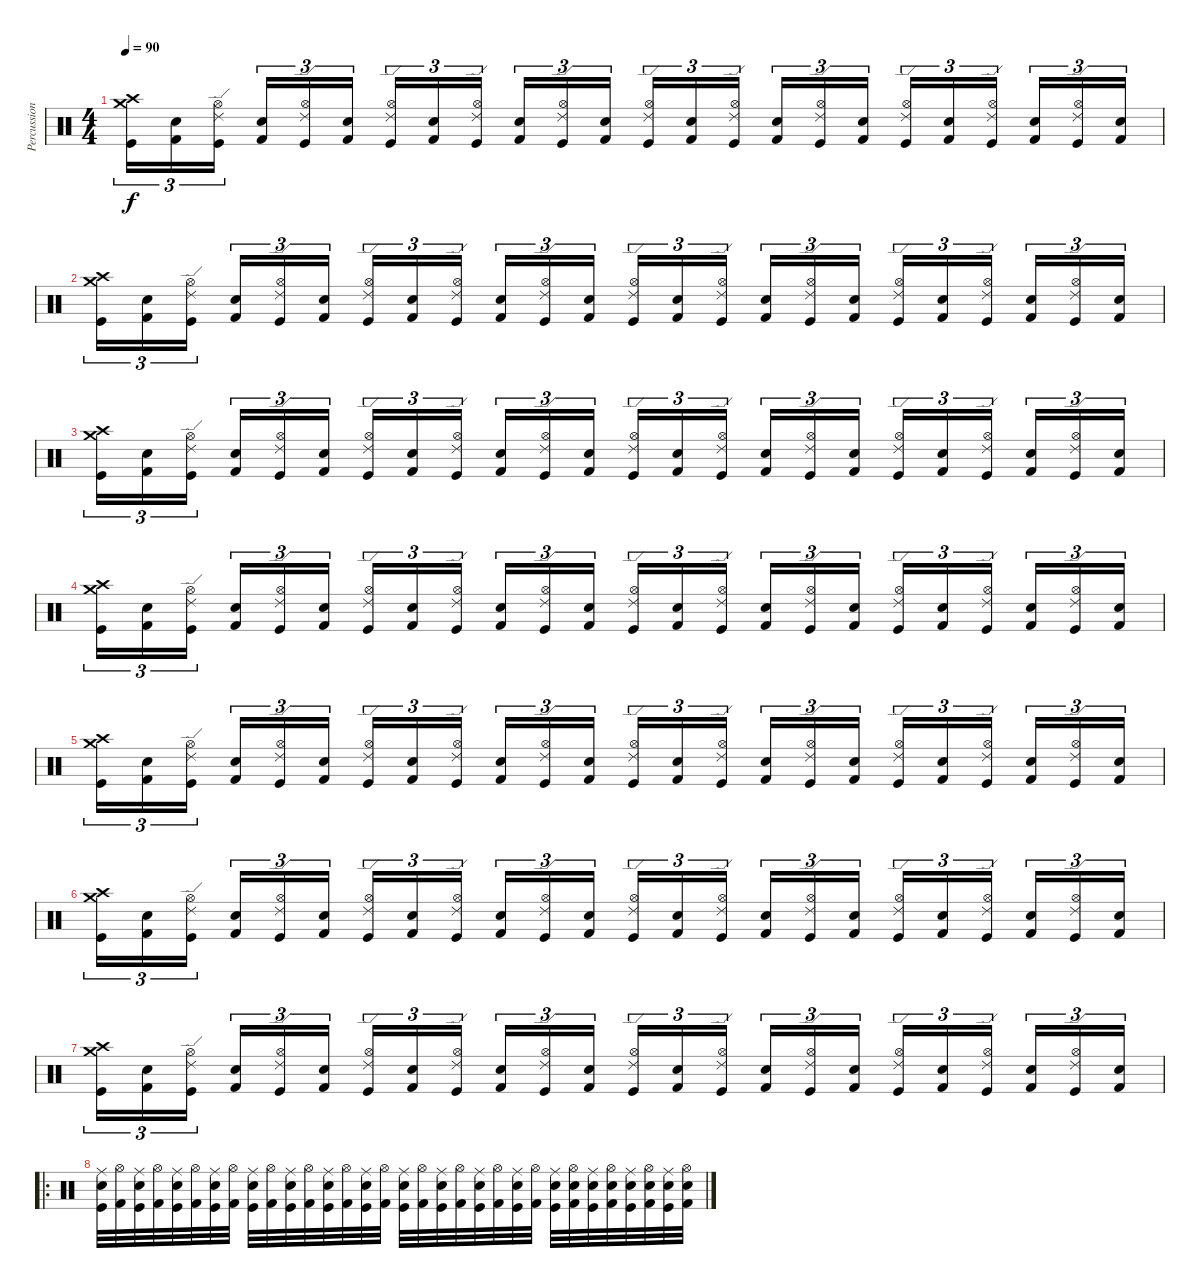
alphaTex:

\track ("Percussion" "Percussion") {instrument percussion}
\staff {score}
\articulation defaults
\ts (4 4)
\tempo 90
\clef neutral
\ks c
("Crash high (hit)" "Crash medium (hit)" "Kick (hit)").16{tu (3 2) dy f} ("Snare (hit) 2" "Kick (hit) 2").16{tu (3 2)} ("Hi-Hat (open)" "Ride (edge) 2" "Kick (hit)").16{tu (3 2)} ("Snare (hit) 2" "Kick (hit) 2").16{tu (3 2)} ("Hi-Hat (open)" "Ride (edge) 2" "Kick (hit)").16{tu (3 2)} ("Snare (hit) 2" "Kick (hit) 2").16{tu (3 2)} ("Hi-Hat (open)" "Ride (edge) 2" "Kick (hit)").16{tu (3 2)} ("Snare (hit) 2" "Kick (hit) 2").16{tu (3 2)} ("Hi-Hat (open)" "Ride (edge) 2" "Kick (hit)").16{tu (3 2)} ("Snare (hit) 2" "Kick (hit) 2").16{tu (3 2)} ("Hi-Hat (open)" "Ride (edge) 2" "Kick (hit)").16{tu (3 2)} ("Snare (hit) 2" "Kick (hit) 2").16{tu (3 2)} ("Hi-Hat (open)" "Ride (edge) 2" "Kick (hit)").16{tu (3 2)} ("Snare (hit) 2" "Kick (hit) 2").16{tu (3 2)} ("Hi-Hat (open)" "Ride (edge) 2" "Kick (hit)").16{tu (3 2)} ("Snare (hit) 2" "Kick (hit) 2").16{tu (3 2)} ("Hi-Hat (open)" "Ride (edge) 2" "Kick (hit)").16{tu (3 2)} ("Snare (hit) 2" "Kick (hit) 2").16{tu (3 2)} ("Hi-Hat (open)" "Ride (edge) 2" "Kick (hit)").16{tu (3 2)} ("Snare (hit) 2" "Kick (hit) 2").16{tu (3 2)} ("Hi-Hat (open)" "Ride (edge) 2" "Kick (hit)").16{tu (3 2)} ("Snare (hit) 2" "Kick (hit) 2").16{tu (3 2)} ("Hi-Hat (open)" "Ride (edge) 2" "Kick (hit)").16{tu (3 2)} ("Snare (hit) 2" "Kick (hit) 2").16{tu (3 2)} |
("Crash high (hit)" "Crash medium (hit)" "Kick (hit)").16{tu (3 2)} ("Snare (hit) 2" "Kick (hit) 2").16{tu (3 2)} ("Hi-Hat (open)" "Ride (edge) 2" "Kick (hit)").16{tu (3 2)} ("Snare (hit) 2" "Kick (hit) 2").16{tu (3 2)} ("Hi-Hat (open)" "Ride (edge) 2" "Kick (hit)").16{tu (3 2)} ("Snare (hit) 2" "Kick (hit) 2").16{tu (3 2)} ("Hi-Hat (open)" "Ride (edge) 2" "Kick (hit)").16{tu (3 2)} ("Snare (hit) 2" "Kick (hit) 2").16{tu (3 2)} ("Hi-Hat (open)" "Ride (edge) 2" "Kick (hit)").16{tu (3 2)} ("Snare (hit) 2" "Kick (hit) 2").16{tu (3 2)} ("Hi-Hat (open)" "Ride (edge) 2" "Kick (hit)").16{tu (3 2)} ("Snare (hit) 2" "Kick (hit) 2").16{tu (3 2)} ("Hi-Hat (open)" "Ride (edge) 2" "Kick (hit)").16{tu (3 2)} ("Snare (hit) 2" "Kick (hit) 2").16{tu (3 2)} ("Hi-Hat (open)" "Ride (edge) 2" "Kick (hit)").16{tu (3 2)} ("Snare (hit) 2" "Kick (hit) 2").16{tu (3 2)} ("Hi-Hat (open)" "Ride (edge) 2" "Kick (hit)").16{tu (3 2)} ("Snare (hit) 2" "Kick (hit) 2").16{tu (3 2)} ("Hi-Hat (open)" "Ride (edge) 2" "Kick (hit)").16{tu (3 2)} ("Snare (hit) 2" "Kick (hit) 2").16{tu (3 2)} ("Hi-Hat (open)" "Ride (edge) 2" "Kick (hit)").16{tu (3 2)} ("Snare (hit) 2" "Kick (hit) 2").16{tu (3 2)} ("Hi-Hat (open)" "Ride (edge) 2" "Kick (hit)").16{tu (3 2)} ("Snare (hit) 2" "Kick (hit) 2").16{tu (3 2)} |
("Crash high (hit)" "Crash medium (hit)" "Kick (hit)").16{tu (3 2)} ("Snare (hit) 2" "Kick (hit) 2").16{tu (3 2)} ("Hi-Hat (open)" "Ride (edge) 2" "Kick (hit)").16{tu (3 2)} ("Snare (hit) 2" "Kick (hit) 2").16{tu (3 2)} ("Hi-Hat (open)" "Ride (edge) 2" "Kick (hit)").16{tu (3 2)} ("Snare (hit) 2" "Kick (hit) 2").16{tu (3 2)} ("Hi-Hat (open)" "Ride (edge) 2" "Kick (hit)").16{tu (3 2)} ("Snare (hit) 2" "Kick (hit) 2").16{tu (3 2)} ("Hi-Hat (open)" "Ride (edge) 2" "Kick (hit)").16{tu (3 2)} ("Snare (hit) 2" "Kick (hit) 2").16{tu (3 2)} ("Hi-Hat (open)" "Ride (edge) 2" "Kick (hit)").16{tu (3 2)} ("Snare (hit) 2" "Kick (hit) 2").16{tu (3 2)} ("Hi-Hat (open)" "Ride (edge) 2" "Kick (hit)").16{tu (3 2)} ("Snare (hit) 2" "Kick (hit) 2").16{tu (3 2)} ("Hi-Hat (open)" "Ride (edge) 2" "Kick (hit)").16{tu (3 2)} ("Snare (hit) 2" "Kick (hit) 2").16{tu (3 2)} ("Hi-Hat (open)" "Ride (edge) 2" "Kick (hit)").16{tu (3 2)} ("Snare (hit) 2" "Kick (hit) 2").16{tu (3 2)} ("Hi-Hat (open)" "Ride (edge) 2" "Kick (hit)").16{tu (3 2)} ("Snare (hit) 2" "Kick (hit) 2").16{tu (3 2)} ("Hi-Hat (open)" "Ride (edge) 2" "Kick (hit)").16{tu (3 2)} ("Snare (hit) 2" "Kick (hit) 2").16{tu (3 2)} ("Hi-Hat (open)" "Ride (edge) 2" "Kick (hit)").16{tu (3 2)} ("Snare (hit) 2" "Kick (hit) 2").16{tu (3 2)} |
("Crash high (hit)" "Crash medium (hit)" "Kick (hit)").16{tu (3 2)} ("Snare (hit) 2" "Kick (hit) 2").16{tu (3 2)} ("Hi-Hat (open)" "Ride (edge) 2" "Kick (hit)").16{tu (3 2)} ("Snare (hit) 2" "Kick (hit) 2").16{tu (3 2)} ("Hi-Hat (open)" "Ride (edge) 2" "Kick (hit)").16{tu (3 2)} ("Snare (hit) 2" "Kick (hit) 2").16{tu (3 2)} ("Hi-Hat (open)" "Ride (edge) 2" "Kick (hit)").16{tu (3 2)} ("Snare (hit) 2" "Kick (hit) 2").16{tu (3 2)} ("Hi-Hat (open)" "Ride (edge) 2" "Kick (hit)").16{tu (3 2)} ("Snare (hit) 2" "Kick (hit) 2").16{tu (3 2)} ("Hi-Hat (open)" "Ride (edge) 2" "Kick (hit)").16{tu (3 2)} ("Snare (hit) 2" "Kick (hit) 2").16{tu (3 2)} ("Hi-Hat (open)" "Ride (edge) 2" "Kick (hit)").16{tu (3 2)} ("Snare (hit) 2" "Kick (hit) 2").16{tu (3 2)} ("Hi-Hat (open)" "Ride (edge) 2" "Kick (hit)").16{tu (3 2)} ("Snare (hit) 2" "Kick (hit) 2").16{tu (3 2)} ("Hi-Hat (open)" "Ride (edge) 2" "Kick (hit)").16{tu (3 2)} ("Snare (hit) 2" "Kick (hit) 2").16{tu (3 2)} ("Hi-Hat (open)" "Ride (edge) 2" "Kick (hit)").16{tu (3 2)} ("Snare (hit) 2" "Kick (hit) 2").16{tu (3 2)} ("Hi-Hat (open)" "Ride (edge) 2" "Kick (hit)").16{tu (3 2)} ("Snare (hit) 2" "Kick (hit) 2").16{tu (3 2)} ("Hi-Hat (open)" "Ride (edge) 2" "Kick (hit)").16{tu (3 2)} ("Snare (hit) 2" "Kick (hit) 2").16{tu (3 2)} |
("Crash high (hit)" "Crash medium (hit)" "Kick (hit)").16{tu (3 2)} ("Snare (hit) 2" "Kick (hit) 2").16{tu (3 2)} ("Hi-Hat (open)" "Ride (edge) 2" "Kick (hit)").16{tu (3 2)} ("Snare (hit) 2" "Kick (hit) 2").16{tu (3 2)} ("Hi-Hat (open)" "Ride (edge) 2" "Kick (hit)").16{tu (3 2)} ("Snare (hit) 2" "Kick (hit) 2").16{tu (3 2)} ("Hi-Hat (open)" "Ride (edge) 2" "Kick (hit)").16{tu (3 2)} ("Snare (hit) 2" "Kick (hit) 2").16{tu (3 2)} ("Hi-Hat (open)" "Ride (edge) 2" "Kick (hit)").16{tu (3 2)} ("Snare (hit) 2" "Kick (hit) 2").16{tu (3 2)} ("Hi-Hat (open)" "Ride (edge) 2" "Kick (hit)").16{tu (3 2)} ("Snare (hit) 2" "Kick (hit) 2").16{tu (3 2)} ("Hi-Hat (open)" "Ride (edge) 2" "Kick (hit)").16{tu (3 2)} ("Snare (hit) 2" "Kick (hit) 2").16{tu (3 2)} ("Hi-Hat (open)" "Ride (edge) 2" "Kick (hit)").16{tu (3 2)} ("Snare (hit) 2" "Kick (hit) 2").16{tu (3 2)} ("Hi-Hat (open)" "Ride (edge) 2" "Kick (hit)").16{tu (3 2)} ("Snare (hit) 2" "Kick (hit) 2").16{tu (3 2)} ("Hi-Hat (open)" "Ride (edge) 2" "Kick (hit)").16{tu (3 2)} ("Snare (hit) 2" "Kick (hit) 2").16{tu (3 2)} ("Hi-Hat (open)" "Ride (edge) 2" "Kick (hit)").16{tu (3 2)} ("Snare (hit) 2" "Kick (hit) 2").16{tu (3 2)} ("Hi-Hat (open)" "Ride (edge) 2" "Kick (hit)").16{tu (3 2)} ("Snare (hit) 2" "Kick (hit) 2").16{tu (3 2)} |
("Crash high (hit)" "Crash medium (hit)" "Kick (hit)").16{tu (3 2)} ("Snare (hit) 2" "Kick (hit) 2").16{tu (3 2)} ("Hi-Hat (open)" "Ride (edge) 2" "Kick (hit)").16{tu (3 2)} ("Snare (hit) 2" "Kick (hit) 2").16{tu (3 2)} ("Hi-Hat (open)" "Ride (edge) 2" "Kick (hit)").16{tu (3 2)} ("Snare (hit) 2" "Kick (hit) 2").16{tu (3 2)} ("Hi-Hat (open)" "Ride (edge) 2" "Kick (hit)").16{tu (3 2)} ("Snare (hit) 2" "Kick (hit) 2").16{tu (3 2)} ("Hi-Hat (open)" "Ride (edge) 2" "Kick (hit)").16{tu (3 2)} ("Snare (hit) 2" "Kick (hit) 2").16{tu (3 2)} ("Hi-Hat (open)" "Ride (edge) 2" "Kick (hit)").16{tu (3 2)} ("Snare (hit) 2" "Kick (hit) 2").16{tu (3 2)} ("Hi-Hat (open)" "Ride (edge) 2" "Kick (hit)").16{tu (3 2)} ("Snare (hit) 2" "Kick (hit) 2").16{tu (3 2)} ("Hi-Hat (open)" "Ride (edge) 2" "Kick (hit)").16{tu (3 2)} ("Snare (hit) 2" "Kick (hit) 2").16{tu (3 2)} ("Hi-Hat (open)" "Ride (edge) 2" "Kick (hit)").16{tu (3 2)} ("Snare (hit) 2" "Kick (hit) 2").16{tu (3 2)} ("Hi-Hat (open)" "Ride (edge) 2" "Kick (hit)").16{tu (3 2)} ("Snare (hit) 2" "Kick (hit) 2").16{tu (3 2)} ("Hi-Hat (open)" "Ride (edge) 2" "Kick (hit)").16{tu (3 2)} ("Snare (hit) 2" "Kick (hit) 2").16{tu (3 2)} ("Hi-Hat (open)" "Ride (edge) 2" "Kick (hit)").16{tu (3 2)} ("Snare (hit) 2" "Kick (hit) 2").16{tu (3 2)} |
("Crash high (hit)" "Crash medium (hit)" "Kick (hit)").16{tu (3 2)} ("Snare (hit) 2" "Kick (hit) 2").16{tu (3 2)} ("Hi-Hat (open)" "Ride (edge) 2" "Kick (hit)").16{tu (3 2)} ("Snare (hit) 2" "Kick (hit) 2").16{tu (3 2)} ("Hi-Hat (open)" "Ride (edge) 2" "Kick (hit)").16{tu (3 2)} ("Snare (hit) 2" "Kick (hit) 2").16{tu (3 2)} ("Hi-Hat (open)" "Ride (edge) 2" "Kick (hit)").16{tu (3 2)} ("Snare (hit) 2" "Kick (hit) 2").16{tu (3 2)} ("Hi-Hat (open)" "Ride (edge) 2" "Kick (hit)").16{tu (3 2)} ("Snare (hit) 2" "Kick (hit) 2").16{tu (3 2)} ("Hi-Hat (open)" "Ride (edge) 2" "Kick (hit)").16{tu (3 2)} ("Snare (hit) 2" "Kick (hit) 2").16{tu (3 2)} ("Hi-Hat (open)" "Ride (edge) 2" "Kick (hit)").16{tu (3 2)} ("Snare (hit) 2" "Kick (hit) 2").16{tu (3 2)} ("Hi-Hat (open)" "Ride (edge) 2" "Kick (hit)").16{tu (3 2)} ("Snare (hit) 2" "Kick (hit) 2").16{tu (3 2)} ("Hi-Hat (open)" "Ride (edge) 2" "Kick (hit)").16{tu (3 2)} ("Snare (hit) 2" "Kick (hit) 2").16{tu (3 2)} ("Hi-Hat (open)" "Ride (edge) 2" "Kick (hit)").16{tu (3 2)} ("Snare (hit) 2" "Kick (hit) 2").16{tu (3 2)} ("Hi-Hat (open)" "Ride (edge) 2" "Kick (hit)").16{tu (3 2)} ("Snare (hit) 2" "Kick (hit) 2").16{tu (3 2)} ("Hi-Hat (open)" "Ride (edge) 2" "Kick (hit)").16{tu (3 2)} ("Snare (hit) 2" "Kick (hit) 2").16{tu (3 2)} |
\ro
("Electric Snare (hit)" "Ride (middle)" "Kick (hit)").32 ("Hi-Hat (open)" "Kick (hit) 2").32 ("Electric Snare (hit)" "Ride (middle)" "Kick (hit)").32 ("Hi-Hat (open)" "Kick (hit) 2").32 ("Electric Snare (hit)" "Ride (middle)" "Kick (hit)").32 ("Hi-Hat (open)" "Kick (hit) 2").32 ("Electric Snare (hit)" "Ride (middle)" "Kick (hit)").32 ("Hi-Hat (open)" "Kick (hit) 2").32 ("Electric Snare (hit)" "Ride (middle)" "Kick (hit)").32 ("Hi-Hat (open)" "Kick (hit) 2").32 ("Electric Snare (hit)" "Ride (middle)" "Kick (hit)").32 ("Hi-Hat (open)" "Kick (hit) 2").32 ("Electric Snare (hit)" "Ride (middle)" "Kick (hit)").32 ("Hi-Hat (open)" "Kick (hit) 2").32 ("Electric Snare (hit)" "Ride (middle)" "Kick (hit)").32 ("Hi-Hat (open)" "Kick (hit) 2").32 ("Electric Snare (hit)" "Ride (middle)" "Kick (hit)").32 ("Hi-Hat (open)" "Kick (hit) 2").32 ("Electric Snare (hit)" "Ride (middle)" "Kick (hit)").32 ("Hi-Hat (open)" "Kick (hit) 2").32 ("Electric Snare (hit)" "Ride (middle)" "Kick (hit)").32 ("Hi-Hat (open)" "Kick (hit) 2").32 ("Electric Snare (hit)" "Ride (middle)" "Kick (hit)").32 ("Hi-Hat (open)" "Kick (hit) 2").32 ("Electric Snare (hit)" "Ride (middle)" "Kick (hit)").32 ("Electric Snare (hit)" "Hi-Hat (open)" "Kick (hit) 2").32 ("Electric Snare (hit)" "Ride (middle)" "Kick (hit)").32 ("Electric Snare (hit)" "Hi-Hat (open)" "Kick (hit) 2").32 ("Electric Snare (hit)" "Ride (middle)" "Kick (hit)").32 ("Electric Snare (hit)" "Hi-Hat (open)" "Kick (hit) 2").32 ("Electric Snare (hit)" "Ride (middle)" "Kick (hit)").32 ("Electric Snare (hit)" "Hi-Hat (open)" "Kick (hit) 2").32
